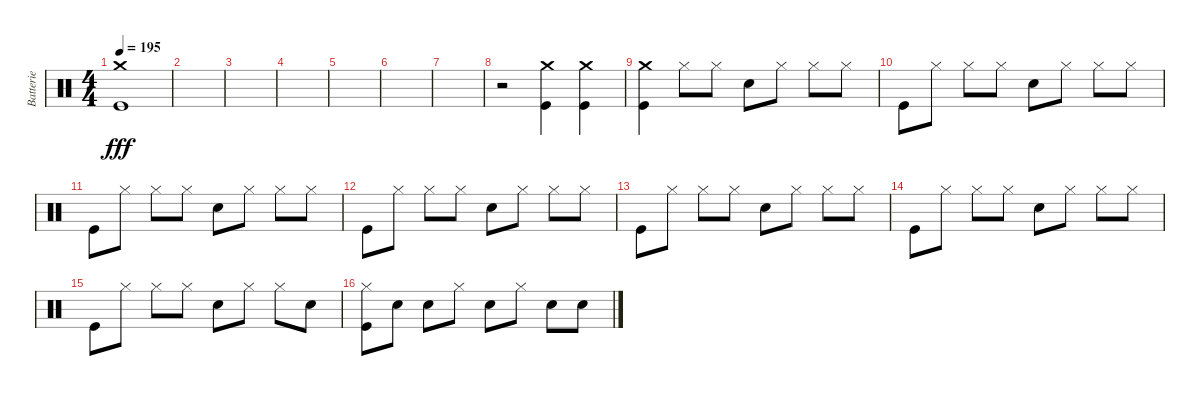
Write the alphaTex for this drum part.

\track ("Batterie" "Batterie") {instrument percussion}
\staff {score}
\articulation defaults
\ts (4 4)
\tempo 195
\clef neutral
\ks c
("Crash medium (hit)" "Kick (hit)").1{dy fff} |
|
|
|
|
|
|
r.2 ("Crash medium (hit)" "Kick (hit)").4 ("Crash medium (hit)" "Kick (hit)").4 |
("Crash medium (hit)" "Kick (hit)").4 "Hi-Hat (closed)".8 "Hi-Hat (closed)".8 "Electric Snare (hit)".8 "Hi-Hat (closed)".8 "Hi-Hat (closed)".8 "Hi-Hat (closed)".8 |
"Kick (hit)".8 "Hi-Hat (closed)".8 "Hi-Hat (closed)".8 "Hi-Hat (closed)".8 "Electric Snare (hit)".8 "Hi-Hat (closed)".8 "Hi-Hat (closed)".8 "Hi-Hat (closed)".8 |
"Kick (hit)".8 "Hi-Hat (closed)".8 "Hi-Hat (closed)".8 "Hi-Hat (closed)".8 "Electric Snare (hit)".8 "Hi-Hat (closed)".8 "Hi-Hat (closed)".8 "Hi-Hat (closed)".8 |
"Kick (hit)".8 "Hi-Hat (closed)".8 "Hi-Hat (closed)".8 "Hi-Hat (closed)".8 "Electric Snare (hit)".8 "Hi-Hat (closed)".8 "Hi-Hat (closed)".8 "Hi-Hat (closed)".8 |
"Kick (hit)".8 "Hi-Hat (closed)".8 "Hi-Hat (closed)".8 "Hi-Hat (closed)".8 "Electric Snare (hit)".8 "Hi-Hat (closed)".8 "Hi-Hat (closed)".8 "Hi-Hat (closed)".8 |
"Kick (hit)".8 "Hi-Hat (closed)".8 "Hi-Hat (closed)".8 "Hi-Hat (closed)".8 "Electric Snare (hit)".8 "Hi-Hat (closed)".8 "Hi-Hat (closed)".8 "Hi-Hat (closed)".8 |
"Kick (hit)".8 "Hi-Hat (closed)".8 "Hi-Hat (closed)".8 "Hi-Hat (closed)".8 "Electric Snare (hit)".8 "Hi-Hat (closed)".8 "Hi-Hat (closed)".8 "Electric Snare (hit)".8 |
("Hi-Hat (closed)" "Kick (hit)").8 "Electric Snare (hit)".8 "Electric Snare (hit)".8 "Hi-Hat (closed)".8 "Electric Snare (hit)".8 "Hi-Hat (closed)".8 "Electric Snare (hit)".8 "Electric Snare (hit)".8
